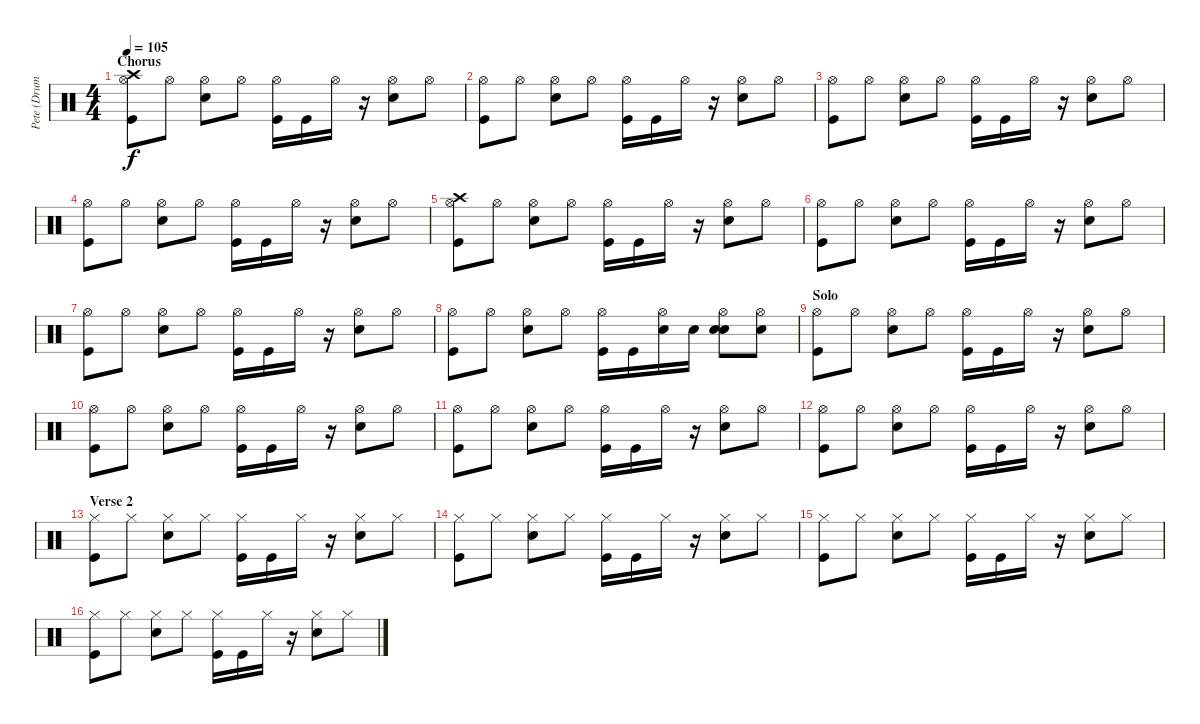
\track ("Pete (Drums)" "Pete (Drum") {instrument percussion}
\staff {score}
\articulation defaults
\ts (4 4)
\section ("" "Chorus")
\tempo 105
\clef neutral
\ks c
("Hi-Hat (open)" "Crash high (hit)" "Kick (hit)").8{dy f} "Hi-Hat (open)".8 ("Hi-Hat (open)" "Snare (hit) 2").8 "Hi-Hat (open)".8 ("Hi-Hat (open)" "Kick (hit)").16 "Kick (hit)".16 "Hi-Hat (open)".16 r.16 ("Hi-Hat (open)" "Snare (hit) 2").8 "Hi-Hat (open)".8 |
("Hi-Hat (open)" "Kick (hit)").8 "Hi-Hat (open)".8 ("Hi-Hat (open)" "Snare (hit) 2").8 "Hi-Hat (open)".8 ("Hi-Hat (open)" "Kick (hit)").16 "Kick (hit)".16 "Hi-Hat (open)".16 r.16 ("Hi-Hat (open)" "Snare (hit) 2").8 "Hi-Hat (open)".8 |
("Hi-Hat (open)" "Kick (hit)").8 "Hi-Hat (open)".8 ("Hi-Hat (open)" "Snare (hit) 2").8 "Hi-Hat (open)".8 ("Hi-Hat (open)" "Kick (hit)").16 "Kick (hit)".16 "Hi-Hat (open)".16 r.16 ("Hi-Hat (open)" "Snare (hit) 2").8 "Hi-Hat (open)".8 |
("Hi-Hat (open)" "Kick (hit)").8 "Hi-Hat (open)".8 ("Hi-Hat (open)" "Snare (hit) 2").8 "Hi-Hat (open)".8 ("Hi-Hat (open)" "Kick (hit)").16 "Kick (hit)".16 "Hi-Hat (open)".16 r.16 ("Hi-Hat (open)" "Snare (hit) 2").8 "Hi-Hat (open)".8 |
("Hi-Hat (open)" "Crash high (hit)" "Kick (hit)").8 "Hi-Hat (open)".8 ("Hi-Hat (open)" "Snare (hit) 2").8 "Hi-Hat (open)".8 ("Hi-Hat (open)" "Kick (hit)").16 "Kick (hit)".16 "Hi-Hat (open)".16 r.16 ("Hi-Hat (open)" "Snare (hit) 2").8 "Hi-Hat (open)".8 |
("Hi-Hat (open)" "Kick (hit)").8 "Hi-Hat (open)".8 ("Hi-Hat (open)" "Snare (hit) 2").8 "Hi-Hat (open)".8 ("Hi-Hat (open)" "Kick (hit)").16 "Kick (hit)".16 "Hi-Hat (open)".16 r.16 ("Hi-Hat (open)" "Snare (hit) 2").8 "Hi-Hat (open)".8 |
("Hi-Hat (open)" "Kick (hit)").8 "Hi-Hat (open)".8 ("Hi-Hat (open)" "Snare (hit) 2").8 "Hi-Hat (open)".8 ("Hi-Hat (open)" "Kick (hit)").16 "Kick (hit)".16 "Hi-Hat (open)".16 r.16 ("Hi-Hat (open)" "Snare (hit) 2").8 "Hi-Hat (open)".8 |
("Hi-Hat (open)" "Kick (hit)").8 "Hi-Hat (open)".8 ("Hi-Hat (open)" "Snare (hit) 2").8 "Hi-Hat (open)".8 ("Hi-Hat (open)" "Kick (hit)").16 "Kick (hit)".16 ("Hi-Hat (open)" "Snare (hit) 2").16 "Snare (hit) 2".16 ("Hi-Hat (open)" "Snare (hit) 2" "Snare (hit) 2").8 ("Hi-Hat (open)" "Snare (hit) 2").8 |
\section ("" "Solo")
("Hi-Hat (open)" "Kick (hit)").8 "Hi-Hat (open)".8 ("Hi-Hat (open)" "Snare (hit) 2").8 "Hi-Hat (open)".8 ("Hi-Hat (open)" "Kick (hit)").16 "Kick (hit)".16 "Hi-Hat (open)".16 r.16 ("Hi-Hat (open)" "Snare (hit) 2").8 "Hi-Hat (open)".8 |
("Hi-Hat (open)" "Kick (hit)").8 "Hi-Hat (open)".8 ("Hi-Hat (open)" "Snare (hit) 2").8 "Hi-Hat (open)".8 ("Hi-Hat (open)" "Kick (hit)").16 "Kick (hit)".16 "Hi-Hat (open)".16 r.16 ("Hi-Hat (open)" "Snare (hit) 2").8 "Hi-Hat (open)".8 |
("Hi-Hat (open)" "Kick (hit)").8 "Hi-Hat (open)".8 ("Hi-Hat (open)" "Snare (hit) 2").8 "Hi-Hat (open)".8 ("Hi-Hat (open)" "Kick (hit)").16 "Kick (hit)".16 "Hi-Hat (open)".16 r.16 ("Hi-Hat (open)" "Snare (hit) 2").8 "Hi-Hat (open)".8 |
("Hi-Hat (open)" "Kick (hit)").8 "Hi-Hat (open)".8 ("Hi-Hat (open)" "Snare (hit) 2").8 "Hi-Hat (open)".8 ("Hi-Hat (open)" "Kick (hit)").16 "Kick (hit)".16 "Hi-Hat (open)".16 r.16 ("Hi-Hat (open)" "Snare (hit) 2").8 "Hi-Hat (open)".8 |
\section ("" "Verse 2")
("Hi-Hat (closed)" "Kick (hit)").8 "Hi-Hat (closed)".8 ("Hi-Hat (closed)" "Snare (hit) 2").8 "Hi-Hat (closed)".8 ("Hi-Hat (closed)" "Kick (hit)").16 "Kick (hit)".16 "Hi-Hat (closed)".16 r.16 ("Hi-Hat (closed)" "Snare (hit) 2").8 "Hi-Hat (closed)".8 |
("Hi-Hat (closed)" "Kick (hit)").8 "Hi-Hat (closed)".8 ("Hi-Hat (closed)" "Snare (hit) 2").8 "Hi-Hat (closed)".8 ("Hi-Hat (closed)" "Kick (hit)").16 "Kick (hit)".16 "Hi-Hat (closed)".16 r.16 ("Hi-Hat (closed)" "Snare (hit) 2").8 "Hi-Hat (closed)".8 |
("Hi-Hat (closed)" "Kick (hit)").8 "Hi-Hat (closed)".8 ("Hi-Hat (closed)" "Snare (hit) 2").8 "Hi-Hat (closed)".8 ("Hi-Hat (closed)" "Kick (hit)").16 "Kick (hit)".16 "Hi-Hat (closed)".16 r.16 ("Hi-Hat (closed)" "Snare (hit) 2").8 "Hi-Hat (closed)".8 |
("Hi-Hat (closed)" "Kick (hit)").8 "Hi-Hat (closed)".8 ("Hi-Hat (closed)" "Snare (hit) 2").8 "Hi-Hat (closed)".8 ("Hi-Hat (closed)" "Kick (hit)").16 "Kick (hit)".16 "Hi-Hat (closed)".16 r.16 ("Hi-Hat (closed)" "Snare (hit) 2").8 "Hi-Hat (closed)".8
